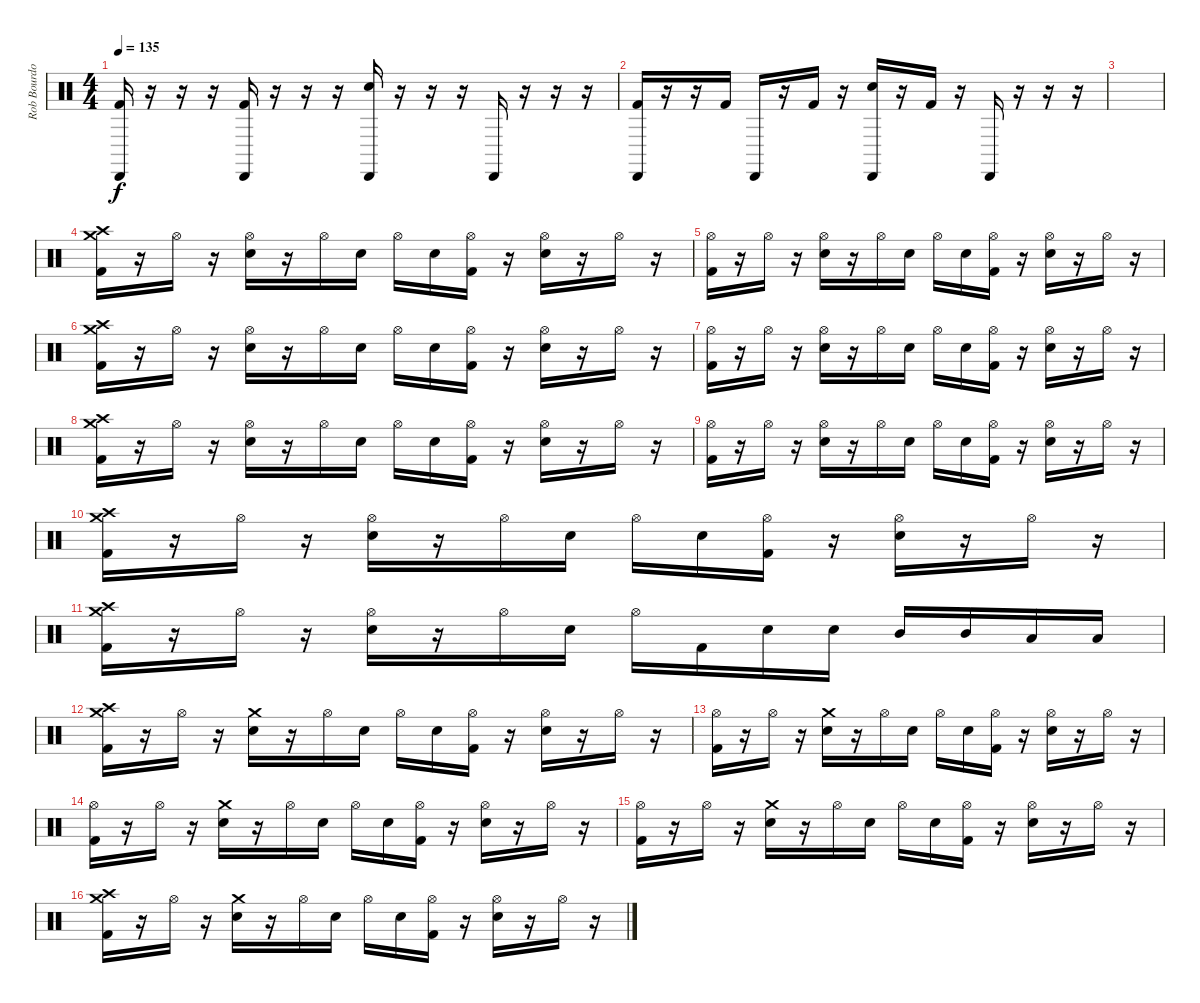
\track ("Rob Bourdon (Drums)" "Rob Bourdo") {instrument percussion}
\staff {score}
\articulation defaults
\ts (4 4)
\tempo 135
\clef neutral
\ks c
("Cabasa (hit)" "Kick (hit) 2").16{dy f} r.16 r.16 r.16 ("Cabasa (hit)" "Kick (hit) 2").16 r.16 r.16 r.16 ("Cabasa (hit)" "Hand Clap (hit)").16 r.16 r.16 r.16 "Cabasa (hit)".16 r.16 r.16 r.16 |
("Cabasa (hit)" "Kick (hit) 2").16 r.16 r.16 "Kick (hit) 2".16 "Cabasa (hit)".16 r.16 "Kick (hit) 2".16 r.16 ("Cabasa (hit)" "Hand Clap (hit)").16 r.16 "Kick (hit) 2".16 r.16 "Cabasa (hit)".16 r.16 r.16 r.16 |
|
("Crash high (hit)" "Crash medium (hit)" "Kick (hit) 2").16 r.16 "Hi-Hat (open)".16 r.16 ("Hi-Hat (open)" "Electric Snare (hit)").16 r.16 "Hi-Hat (open)".16 "Electric Snare (hit)".16 "Hi-Hat (open)".16 "Electric Snare (hit)".16 ("Hi-Hat (open)" "Kick (hit) 2").16 r.16 ("Hi-Hat (open)" "Electric Snare (hit)").16 r.16 "Hi-Hat (open)".16 r.16 |
("Hi-Hat (open)" "Kick (hit) 2").16 r.16 "Hi-Hat (open)".16 r.16 ("Hi-Hat (open)" "Electric Snare (hit)").16 r.16 "Hi-Hat (open)".16 "Electric Snare (hit)".16 "Hi-Hat (open)".16 "Electric Snare (hit)".16 ("Hi-Hat (open)" "Kick (hit) 2").16 r.16 ("Hi-Hat (open)" "Electric Snare (hit)").16 r.16 "Hi-Hat (open)".16 r.16 |
("Crash high (hit)" "Crash medium (hit)" "Kick (hit) 2").16 r.16 "Hi-Hat (open)".16 r.16 ("Hi-Hat (open)" "Electric Snare (hit)").16 r.16 "Hi-Hat (open)".16 "Electric Snare (hit)".16 "Hi-Hat (open)".16 "Electric Snare (hit)".16 ("Hi-Hat (open)" "Kick (hit) 2").16 r.16 ("Hi-Hat (open)" "Electric Snare (hit)").16 r.16 "Hi-Hat (open)".16 r.16 |
("Hi-Hat (open)" "Kick (hit) 2").16 r.16 "Hi-Hat (open)".16 r.16 ("Hi-Hat (open)" "Electric Snare (hit)").16 r.16 "Hi-Hat (open)".16 "Electric Snare (hit)".16 "Hi-Hat (open)".16 "Electric Snare (hit)".16 ("Hi-Hat (open)" "Kick (hit) 2").16 r.16 ("Hi-Hat (open)" "Electric Snare (hit)").16 r.16 "Hi-Hat (open)".16 r.16 |
("Crash high (hit)" "Crash medium (hit)" "Kick (hit) 2").16 r.16 "Hi-Hat (open)".16 r.16 ("Hi-Hat (open)" "Electric Snare (hit)").16 r.16 "Hi-Hat (open)".16 "Electric Snare (hit)".16 "Hi-Hat (open)".16 "Electric Snare (hit)".16 ("Hi-Hat (open)" "Kick (hit) 2").16 r.16 ("Hi-Hat (open)" "Electric Snare (hit)").16 r.16 "Hi-Hat (open)".16 r.16 |
("Hi-Hat (open)" "Kick (hit) 2").16 r.16 "Hi-Hat (open)".16 r.16 ("Hi-Hat (open)" "Electric Snare (hit)").16 r.16 "Hi-Hat (open)".16 "Electric Snare (hit)".16 "Hi-Hat (open)".16 "Electric Snare (hit)".16 ("Hi-Hat (open)" "Kick (hit) 2").16 r.16 ("Hi-Hat (open)" "Electric Snare (hit)").16 r.16 "Hi-Hat (open)".16 r.16 |
("Crash high (hit)" "Crash medium (hit)" "Kick (hit) 2").16 r.16 "Hi-Hat (open)".16 r.16 ("Hi-Hat (open)" "Electric Snare (hit)").16 r.16 "Hi-Hat (open)".16 "Electric Snare (hit)".16 "Hi-Hat (open)".16 "Electric Snare (hit)".16 ("Hi-Hat (open)" "Kick (hit) 2").16 r.16 ("Hi-Hat (open)" "Electric Snare (hit)").16 r.16 "Hi-Hat (open)".16 r.16 |
("Crash high (hit)" "Crash medium (hit)" "Kick (hit) 2").16 r.16 "Hi-Hat (open)".16 r.16 ("Hi-Hat (open)" "Electric Snare (hit)").16 r.16 "Hi-Hat (open)".16 "Electric Snare (hit)".16 "Hi-Hat (open)".16 "Kick (hit) 2".16 "Electric Snare (hit)".16 "Electric Snare (hit)".16 "Mid Tom (hit)".16 "Mid Tom (hit)".16 "Low Tom (hit)".16 "Low Tom (hit)".16 |
("Crash high (hit)" "Crash medium (hit)" "Kick (hit) 2").16 r.16 "Hi-Hat (open)".16 r.16 ("Crash medium (hit)" "Electric Snare (hit)").16 r.16 "Hi-Hat (open)".16 "Electric Snare (hit)".16 "Hi-Hat (open)".16 "Electric Snare (hit)".16 ("Hi-Hat (open)" "Kick (hit) 2").16 r.16 ("Hi-Hat (open)" "Electric Snare (hit)").16 r.16 "Hi-Hat (open)".16 r.16 |
("Hi-Hat (open)" "Kick (hit) 2").16 r.16 "Hi-Hat (open)".16 r.16 ("Crash medium (hit)" "Electric Snare (hit)").16 r.16 "Hi-Hat (open)".16 "Electric Snare (hit)".16 "Hi-Hat (open)".16 "Electric Snare (hit)".16 ("Hi-Hat (open)" "Kick (hit) 2").16 r.16 ("Hi-Hat (open)" "Electric Snare (hit)").16 r.16 "Hi-Hat (open)".16 r.16 |
("Hi-Hat (open)" "Kick (hit) 2").16 r.16 "Hi-Hat (open)".16 r.16 ("Crash medium (hit)" "Electric Snare (hit)").16 r.16 "Hi-Hat (open)".16 "Electric Snare (hit)".16 "Hi-Hat (open)".16 "Electric Snare (hit)".16 ("Hi-Hat (open)" "Kick (hit) 2").16 r.16 ("Hi-Hat (open)" "Electric Snare (hit)").16 r.16 "Hi-Hat (open)".16 r.16 |
("Hi-Hat (open)" "Kick (hit) 2").16 r.16 "Hi-Hat (open)".16 r.16 ("Crash medium (hit)" "Electric Snare (hit)").16 r.16 "Hi-Hat (open)".16 "Electric Snare (hit)".16 "Hi-Hat (open)".16 "Electric Snare (hit)".16 ("Hi-Hat (open)" "Kick (hit) 2").16 r.16 ("Hi-Hat (open)" "Electric Snare (hit)").16 r.16 "Hi-Hat (open)".16 r.16 |
("Crash high (hit)" "Crash medium (hit)" "Kick (hit) 2").16 r.16 "Hi-Hat (open)".16 r.16 ("Crash medium (hit)" "Electric Snare (hit)").16 r.16 "Hi-Hat (open)".16 "Electric Snare (hit)".16 "Hi-Hat (open)".16 "Electric Snare (hit)".16 ("Hi-Hat (open)" "Kick (hit) 2").16 r.16 ("Hi-Hat (open)" "Electric Snare (hit)").16 r.16 "Hi-Hat (open)".16 r.16
